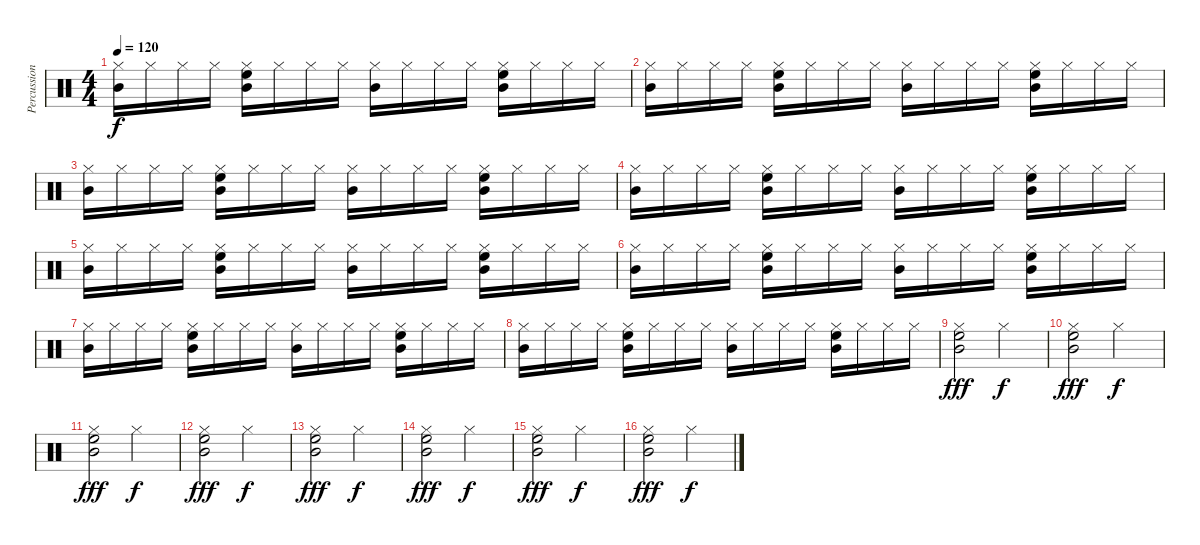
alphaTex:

\track ("Percussion" "Percussion") {instrument percussion}
\staff {score}
\articulation defaults
\ts (4 4)
\tempo 120
\clef neutral
\ks c
("Hi-Hat (closed)" "Mid Tom (hit)").16{dy f} "Hi-Hat (closed)".16 "Hi-Hat (closed)".16 "Hi-Hat (closed)".16 ("Hi-Hat (closed)" "Mid Tom (hit)" "High Floor Tom (hit)").16 "Hi-Hat (closed)".16 "Hi-Hat (closed)".16 "Hi-Hat (closed)".16 ("Hi-Hat (closed)" "Mid Tom (hit)").16 "Hi-Hat (closed)".16 "Hi-Hat (closed)".16 "Hi-Hat (closed)".16 ("Hi-Hat (closed)" "Mid Tom (hit)" "High Floor Tom (hit)").16 "Hi-Hat (closed)".16 "Hi-Hat (closed)".16 "Hi-Hat (closed)".16 |
("Hi-Hat (closed)" "Mid Tom (hit)").16 "Hi-Hat (closed)".16 "Hi-Hat (closed)".16 "Hi-Hat (closed)".16 ("Hi-Hat (closed)" "Mid Tom (hit)" "High Floor Tom (hit)").16 "Hi-Hat (closed)".16 "Hi-Hat (closed)".16 "Hi-Hat (closed)".16 ("Hi-Hat (closed)" "Mid Tom (hit)").16 "Hi-Hat (closed)".16 "Hi-Hat (closed)".16 "Hi-Hat (closed)".16 ("Hi-Hat (closed)" "Mid Tom (hit)" "High Floor Tom (hit)").16 "Hi-Hat (closed)".16 "Hi-Hat (closed)".16 "Hi-Hat (closed)".16 |
("Hi-Hat (closed)" "Mid Tom (hit)").16 "Hi-Hat (closed)".16 "Hi-Hat (closed)".16 "Hi-Hat (closed)".16 ("Hi-Hat (closed)" "Mid Tom (hit)" "High Floor Tom (hit)").16 "Hi-Hat (closed)".16 "Hi-Hat (closed)".16 "Hi-Hat (closed)".16 ("Hi-Hat (closed)" "Mid Tom (hit)").16 "Hi-Hat (closed)".16 "Hi-Hat (closed)".16 "Hi-Hat (closed)".16 ("Hi-Hat (closed)" "Mid Tom (hit)" "High Floor Tom (hit)").16 "Hi-Hat (closed)".16 "Hi-Hat (closed)".16 "Hi-Hat (closed)".16 |
("Hi-Hat (closed)" "Mid Tom (hit)").16 "Hi-Hat (closed)".16 "Hi-Hat (closed)".16 "Hi-Hat (closed)".16 ("Hi-Hat (closed)" "Mid Tom (hit)" "High Floor Tom (hit)").16 "Hi-Hat (closed)".16 "Hi-Hat (closed)".16 "Hi-Hat (closed)".16 ("Hi-Hat (closed)" "Mid Tom (hit)").16 "Hi-Hat (closed)".16 "Hi-Hat (closed)".16 "Hi-Hat (closed)".16 ("Hi-Hat (closed)" "Mid Tom (hit)" "High Floor Tom (hit)").16 "Hi-Hat (closed)".16 "Hi-Hat (closed)".16 "Hi-Hat (closed)".16 |
("Hi-Hat (closed)" "Mid Tom (hit)").16 "Hi-Hat (closed)".16 "Hi-Hat (closed)".16 "Hi-Hat (closed)".16 ("Hi-Hat (closed)" "Mid Tom (hit)" "High Floor Tom (hit)").16 "Hi-Hat (closed)".16 "Hi-Hat (closed)".16 "Hi-Hat (closed)".16 ("Hi-Hat (closed)" "Mid Tom (hit)").16 "Hi-Hat (closed)".16 "Hi-Hat (closed)".16 "Hi-Hat (closed)".16 ("Hi-Hat (closed)" "Mid Tom (hit)" "High Floor Tom (hit)").16 "Hi-Hat (closed)".16 "Hi-Hat (closed)".16 "Hi-Hat (closed)".16 |
("Hi-Hat (closed)" "Mid Tom (hit)").16 "Hi-Hat (closed)".16 "Hi-Hat (closed)".16 "Hi-Hat (closed)".16 ("Hi-Hat (closed)" "Mid Tom (hit)" "High Floor Tom (hit)").16 "Hi-Hat (closed)".16 "Hi-Hat (closed)".16 "Hi-Hat (closed)".16 ("Hi-Hat (closed)" "Mid Tom (hit)").16 "Hi-Hat (closed)".16 "Hi-Hat (closed)".16 "Hi-Hat (closed)".16 ("Hi-Hat (closed)" "Mid Tom (hit)" "High Floor Tom (hit)").16 "Hi-Hat (closed)".16 "Hi-Hat (closed)".16 "Hi-Hat (closed)".16 |
("Hi-Hat (closed)" "Mid Tom (hit)").16 "Hi-Hat (closed)".16 "Hi-Hat (closed)".16 "Hi-Hat (closed)".16 ("Hi-Hat (closed)" "Mid Tom (hit)" "High Floor Tom (hit)").16 "Hi-Hat (closed)".16 "Hi-Hat (closed)".16 "Hi-Hat (closed)".16 ("Hi-Hat (closed)" "Mid Tom (hit)").16 "Hi-Hat (closed)".16 "Hi-Hat (closed)".16 "Hi-Hat (closed)".16 ("Hi-Hat (closed)" "Mid Tom (hit)" "High Floor Tom (hit)").16 "Hi-Hat (closed)".16 "Hi-Hat (closed)".16 "Hi-Hat (closed)".16 |
("Hi-Hat (closed)" "Mid Tom (hit)").16 "Hi-Hat (closed)".16 "Hi-Hat (closed)".16 "Hi-Hat (closed)".16 ("Hi-Hat (closed)" "Mid Tom (hit)" "High Floor Tom (hit)").16 "Hi-Hat (closed)".16 "Hi-Hat (closed)".16 "Hi-Hat (closed)".16 ("Hi-Hat (closed)" "Mid Tom (hit)").16 "Hi-Hat (closed)".16 "Hi-Hat (closed)".16 "Hi-Hat (closed)".16 ("Hi-Hat (closed)" "Mid Tom (hit)" "High Floor Tom (hit)").16 "Hi-Hat (closed)".16 "Hi-Hat (closed)".16 "Hi-Hat (closed)".16 |
("Hi-Hat (closed)" "Mid Tom (hit)" "High Floor Tom (hit)").2{dy fff} "Hi-Hat (closed)".2{dy f} |
("Hi-Hat (closed)" "Mid Tom (hit)" "High Floor Tom (hit)").2{dy fff} "Hi-Hat (closed)".2{dy f} |
("Hi-Hat (closed)" "Mid Tom (hit)" "High Floor Tom (hit)").2{dy fff} "Hi-Hat (closed)".2{dy f} |
("Hi-Hat (closed)" "Mid Tom (hit)" "High Floor Tom (hit)").2{dy fff} "Hi-Hat (closed)".2{dy f} |
("Hi-Hat (closed)" "Mid Tom (hit)" "High Floor Tom (hit)").2{dy fff} "Hi-Hat (closed)".2{dy f} |
("Hi-Hat (closed)" "Mid Tom (hit)" "High Floor Tom (hit)").2{dy fff} "Hi-Hat (closed)".2{dy f} |
("Hi-Hat (closed)" "Mid Tom (hit)" "High Floor Tom (hit)").2{dy fff} "Hi-Hat (closed)".2{dy f} |
("Hi-Hat (closed)" "Mid Tom (hit)" "High Floor Tom (hit)").2{dy fff} "Hi-Hat (closed)".2{dy f}
